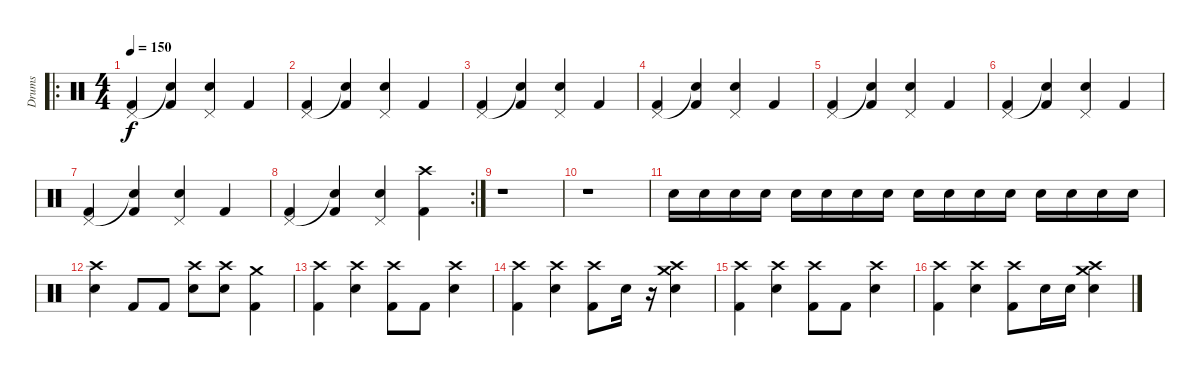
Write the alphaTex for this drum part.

\track ("Drums" "Drums") {instrument percussion}
\staff {score}
\articulation defaults
\ro
\ts (4 4)
\tempo 150
\clef neutral
\ks c
("Pedal Hi-Hat (hit)" "Kick (hit) 2").4{dy f} ("Snare (hit)"{t} "Kick (hit) 2").4 ("Pedal Hi-Hat (hit)" "Electric Snare (hit)").4 "Kick (hit) 2".4 |
("Pedal Hi-Hat (hit)" "Kick (hit) 2").4 ("Snare (hit)"{t} "Kick (hit) 2").4 ("Pedal Hi-Hat (hit)" "Electric Snare (hit)").4 "Kick (hit) 2".4 |
("Pedal Hi-Hat (hit)" "Kick (hit) 2").4 ("Snare (hit)"{t} "Kick (hit) 2").4 ("Pedal Hi-Hat (hit)" "Electric Snare (hit)").4 "Kick (hit) 2".4 |
("Pedal Hi-Hat (hit)" "Kick (hit) 2").4 ("Snare (hit)"{t} "Kick (hit) 2").4 ("Pedal Hi-Hat (hit)" "Electric Snare (hit)").4 "Kick (hit) 2".4 |
("Pedal Hi-Hat (hit)" "Kick (hit) 2").4 ("Snare (hit)"{t} "Kick (hit) 2").4 ("Pedal Hi-Hat (hit)" "Electric Snare (hit)").4 "Kick (hit) 2".4 |
("Pedal Hi-Hat (hit)" "Kick (hit) 2").4 ("Snare (hit)"{t} "Kick (hit) 2").4 ("Pedal Hi-Hat (hit)" "Electric Snare (hit)").4 "Kick (hit) 2".4 |
("Pedal Hi-Hat (hit)" "Kick (hit) 2").4 ("Snare (hit)"{t} "Kick (hit) 2").4 ("Pedal Hi-Hat (hit)" "Electric Snare (hit)").4 "Kick (hit) 2".4 |
\rc 2
("Pedal Hi-Hat (hit)" "Kick (hit) 2").4 ("Snare (hit)"{t} "Kick (hit) 2").4 ("Pedal Hi-Hat (hit)" "Electric Snare (hit)").4 ("Crash high (hit)" "Kick (hit) 2").4 |
r.1 |
r.1 |
"Electric Snare (hit)".16 "Electric Snare (hit)".16 "Electric Snare (hit)".16 "Electric Snare (hit)".16 "Electric Snare (hit)".16 "Electric Snare (hit)".16 "Electric Snare (hit)".16 "Electric Snare (hit)".16 "Electric Snare (hit)".16 "Electric Snare (hit)".16 "Electric Snare (hit)".16 "Electric Snare (hit)".16 "Electric Snare (hit)".16 "Electric Snare (hit)".16 "Electric Snare (hit)".16 "Electric Snare (hit)".16 |
("Crash high (hit)" "Electric Snare (hit)").4 "Kick (hit) 2".8 "Kick (hit) 2".8 ("Crash high (hit)" "Electric Snare (hit)").8 ("Crash high (hit)" "Electric Snare (hit)").8 ("Crash medium (hit)" "Kick (hit) 2").4 |
("Crash high (hit)" "Kick (hit) 2").4 ("Crash high (hit)" "Electric Snare (hit)").4 ("Crash high (hit)" "Kick (hit) 2").8 "Kick (hit) 2".8 ("Crash high (hit)" "Electric Snare (hit)").4 |
("Crash high (hit)" "Kick (hit) 2").4 ("Crash high (hit)" "Electric Snare (hit)").4 ("Crash high (hit)" "Kick (hit) 2").8 "Electric Snare (hit)".16 r.16 ("Crash medium (hit)" "Crash high (hit)" "Electric Snare (hit)").4 |
("Crash high (hit)" "Kick (hit) 2").4 ("Crash high (hit)" "Electric Snare (hit)").4 ("Crash high (hit)" "Kick (hit) 2").8 "Kick (hit) 2".8 ("Crash high (hit)" "Electric Snare (hit)").4 |
("Crash high (hit)" "Kick (hit) 2").4 ("Crash high (hit)" "Electric Snare (hit)").4 ("Crash high (hit)" "Kick (hit) 2").8 "Electric Snare (hit)".16 "Electric Snare (hit)".16 ("Crash medium (hit)" "Crash high (hit)" "Electric Snare (hit)").4
